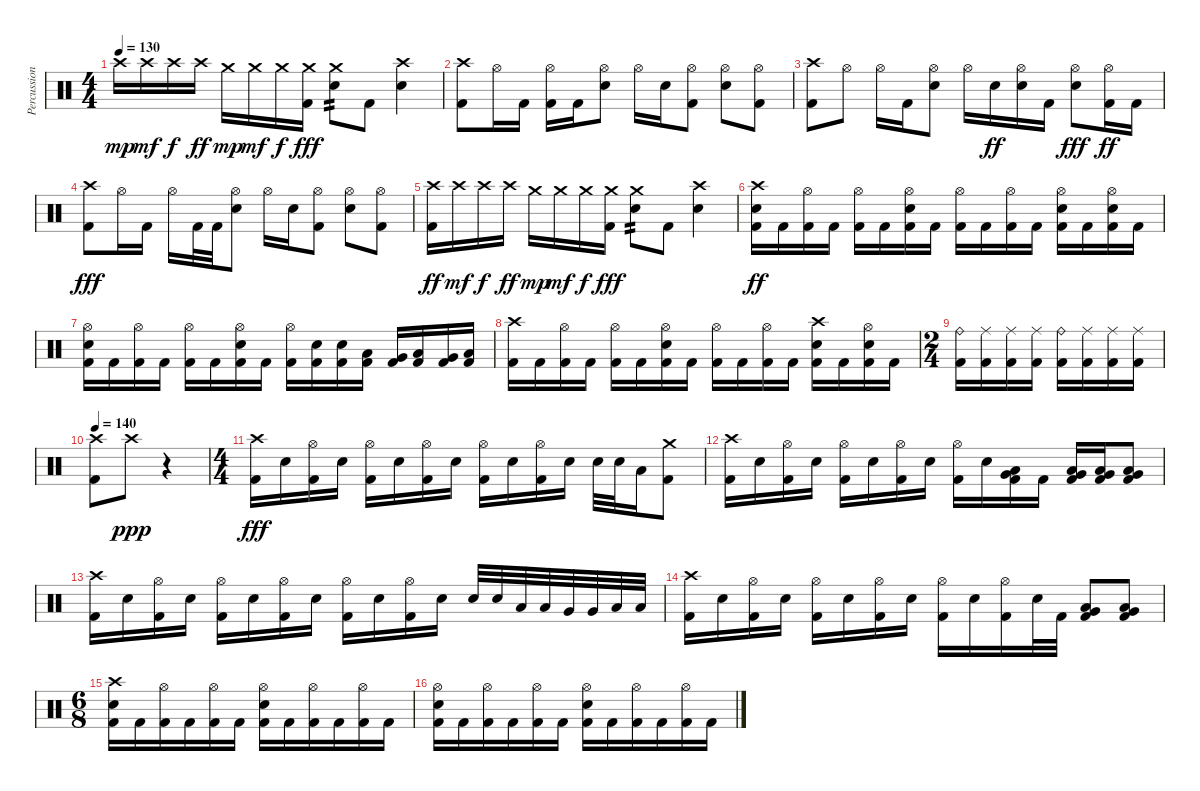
\track ("Percussion" "Percussion") {instrument percussion}
\staff {score}
\articulation defaults
\ts (4 4)
\tempo 130
\clef neutral
\ks c "Crash high (hit)".16{dy mp} "Crash high (hit)".16{dy mf} "Crash high (hit)".16{dy f} "Crash high (hit)".16{dy ff} "Crash medium (hit)".16{dy mp} "Crash medium (hit)".16{dy mf} "Crash medium (hit)".16{dy f}
("Crash medium (hit)" "Kick (hit) 2").16{dy fff} ("Crash medium (hit)" "Electric Snare (hit)").8{tp 2} "Kick (hit) 2".8 ("Crash high (hit)" "Electric Snare (hit)").4 |
("Crash high (hit)" "Kick (hit) 2").8 "Hi-Hat (open)".16 "Kick (hit) 2".16 ("Hi-Hat (open)" "Kick (hit) 2").16 "Kick (hit) 2".16 ("Hi-Hat (open)" "Electric Snare (hit)").8 "Hi-Hat (open)".16 "Electric Snare (hit)".16 ("Hi-Hat (open)" "Kick (hit) 2").8 ("Hi-Hat (open)" "Electric Snare (hit)").8 ("Hi-Hat (open)" "Kick (hit) 2").8 |
("Crash high (hit)" "Kick (hit) 2").8 "Hi-Hat (open)".8 "Hi-Hat (open)".16 "Kick (hit) 2".16 ("Hi-Hat (open)" "Electric Snare (hit)").8 "Hi-Hat (open)".16 "Electric Snare (hit)".16{dy ff} ("Hi-Hat (open)" "Electric Snare (hit)").16 "Kick (hit) 2".16 ("Hi-Hat (open)" "Electric Snare (hit)").8{dy fff} ("Hi-Hat (open)" "Kick (hit) 2").16{dy ff} "Kick (hit) 2".16 |
("Crash high (hit)" "Kick (hit) 2").8{dy fff} "Hi-Hat (open)".16 "Kick (hit) 2".16 "Hi-Hat (open)".16 "Kick (hit) 2".32 "Kick (hit) 2".32 ("Hi-Hat (open)" "Electric Snare (hit)").8 "Hi-Hat (open)".16 "Electric Snare (hit)".16 ("Hi-Hat (open)" "Kick (hit) 2").8 ("Hi-Hat (open)" "Electric Snare (hit)").8 ("Hi-Hat (open)" "Kick (hit) 2").8 |
("Crash high (hit)" "Kick (hit) 2").16{dy ff} "Crash high (hit)".16{dy mf} "Crash high (hit)".16{dy f} "Crash high (hit)".16{dy ff} "Crash medium (hit)".16{dy mp} "Crash medium (hit)".16{dy mf} "Crash medium (hit)".16{dy f} ("Crash medium (hit)" "Kick (hit) 2").16{dy fff} ("Crash medium (hit)" "Electric Snare (hit)").8{tp 2} "Kick (hit) 2".8 ("Crash high (hit)" "Electric Snare (hit)").4 |
("Crash high (hit)" "Electric Snare (hit)" "Kick (hit) 2").16{dy ff} "Kick (hit) 2".16 ("Hi-Hat (open)" "Kick (hit) 2").16 "Kick (hit) 2".16 ("Hi-Hat (open)" "Kick (hit) 2").16 "Kick (hit) 2".16 ("Hi-Hat (open)" "Electric Snare (hit)" "Kick (hit) 2").16 "Kick (hit) 2".16 ("Hi-Hat (open)" "Kick (hit) 2").16 "Kick (hit) 2".16 ("Hi-Hat (open)" "Kick (hit) 2").16 "Kick (hit) 2".16 ("Hi-Hat (open)" "Electric Snare (hit)" "Kick (hit) 2").16 "Kick (hit) 2".16 ("Hi-Hat (open)" "Electric Snare (hit)" "Kick (hit) 2").16 "Kick (hit) 2".16 |
("Hi-Hat (open)" "Electric Snare (hit)" "Kick (hit) 2").16 "Kick (hit) 2".16 ("Hi-Hat (open)" "Kick (hit) 2").16 "Kick (hit) 2".16 ("Hi-Hat (open)" "Kick (hit) 2").16 "Kick (hit) 2".16 ("Hi-Hat (open)" "Electric Snare (hit)" "Kick (hit) 2").16 "Kick (hit) 2".16 ("Hi-Hat (open)" "Kick (hit) 2").16 ("Electric Snare (hit)" "Kick (hit) 2").16 ("Electric Snare (hit)" "Kick (hit) 2").16 ("Low Tom (hit)" "Kick (hit) 2").16 ("Very Low Tom (hit)" "Kick (hit) 2").16 ("Low Floor Tom (hit)" "Kick (hit) 2").16 ("Very Low Tom (hit)" "Kick (hit) 2").16 ("Low Floor Tom (hit)" "Kick (hit) 2").16 |
("Crash high (hit)" "Kick (hit) 2").16 "Kick (hit) 2".16 ("Hi-Hat (open)" "Kick (hit) 2").16 "Kick (hit) 2".16 ("Hi-Hat (open)" "Kick (hit) 2").16 "Kick (hit) 2".16 ("Hi-Hat (open)" "Electric Snare (hit)" "Kick (hit) 2").16 "Kick (hit) 2".16 ("Hi-Hat (open)" "Kick (hit) 2").16 "Kick (hit) 2".16 ("Hi-Hat (open)" "Kick (hit) 2").16 "Kick (hit) 2".16 ("Crash high (hit)" "Electric Snare (hit)" "Kick (hit) 2").16 "Kick (hit) 2".16 ("Hi-Hat (open)" "Electric Snare (hit)" "Kick (hit) 2").16 "Kick (hit) 2".16 |
\ts (2 4)
("Ride (bell)" "Kick (hit) 2").16 ("Ride (middle)" "Kick (hit) 2").16 ("Ride (middle)" "Kick (hit) 2").16 ("Ride (middle)" "Kick (hit) 2").16 ("Ride (bell)" "Kick (hit) 2").16 ("Ride (middle)" "Kick (hit) 2").16 ("Ride (middle)" "Kick (hit) 2").16 ("Ride (middle)" "Kick (hit) 2").16 |
\tempo 140
("Crash high (hit)" "Kick (hit) 2").8 "Crash high (hit)".8{dy ppp} r.4 |
\ts (4 4)
("Crash high (hit)" "Kick (hit) 2").16{dy fff} "Electric Snare (hit)".16 ("Hi-Hat (open)" "Kick (hit) 2").16 "Electric Snare (hit)".16 ("Hi-Hat (open)" "Kick (hit) 2").16 "Electric Snare (hit)".16 ("Hi-Hat (open)" "Kick (hit) 2").16 "Electric Snare (hit)".16 ("Hi-Hat (open)" "Kick (hit) 2").16 "Electric Snare (hit)".16 ("Hi-Hat (open)" "Kick (hit) 2").16 "Electric Snare (hit)".16 "Electric Snare (hit)".32 "Electric Snare (hit)".32 "Low Tom (hit)".16 ("Crash medium (hit)" "Kick (hit) 2").8 |
("Crash high (hit)" "Kick (hit) 2").16 "Electric Snare (hit)".16 ("Hi-Hat (open)" "Kick (hit) 2").16 "Electric Snare (hit)".16 ("Hi-Hat (open)" "Kick (hit) 2").16 "Electric Snare (hit)".16 ("Hi-Hat (open)" "Kick (hit) 2").16 "Electric Snare (hit)".16 ("Hi-Hat (open)" "Kick (hit) 2").16 "Electric Snare (hit)".16 ("Very Low Tom (hit)" "Low Floor Tom (hit)" "Kick (hit) 2").16 "Kick (hit) 2".16 ("Very Low Tom (hit)" "Low Floor Tom (hit)" "Kick (hit) 2").16 ("Very Low Tom (hit)" "Low Floor Tom (hit)" "Kick (hit) 2").16 ("Very Low Tom (hit)" "Low Floor Tom (hit)" "Kick (hit) 2").8 |
("Crash high (hit)" "Kick (hit) 2").16 "Electric Snare (hit)".16 ("Hi-Hat (open)" "Kick (hit) 2").16 "Electric Snare (hit)".16 ("Hi-Hat (open)" "Kick (hit) 2").16 "Electric Snare (hit)".16 ("Hi-Hat (open)" "Kick (hit) 2").16 "Electric Snare (hit)".16 ("Hi-Hat (open)" "Kick (hit) 2").16 "Electric Snare (hit)".16 ("Hi-Hat (open)" "Kick (hit) 2").16 "Electric Snare (hit)".16 "Electric Snare (hit)".32 "Electric Snare (hit)".32 "Low Tom (hit)".32 "Low Tom (hit)".32 "Very Low Tom (hit)".32 "Very Low Tom (hit)".32 "Low Floor Tom (hit)".32 "Low Floor Tom (hit)".32 |
("Crash high (hit)" "Kick (hit) 2").16 "Electric Snare (hit)".16 ("Hi-Hat (open)" "Kick (hit) 2").16 "Electric Snare (hit)".16 ("Hi-Hat (open)" "Kick (hit) 2").16 "Electric Snare (hit)".16 ("Hi-Hat (open)" "Kick (hit) 2").16 "Electric Snare (hit)".16 ("Hi-Hat (open)" "Kick (hit) 2").16 "Electric Snare (hit)".16 ("Hi-Hat (open)" "Kick (hit) 2").16 "Electric Snare (hit)".32 "Kick (hit) 2".32 ("Very Low Tom (hit)" "Low Floor Tom (hit)" "Kick (hit) 2").8 ("Very Low Tom (hit)" "Low Floor Tom (hit)" "Kick (hit) 2").8 |
\ts (6 8)
("Crash high (hit)" "Electric Snare (hit)" "Kick (hit) 2").16 "Kick (hit) 2".16 ("Hi-Hat (open)" "Kick (hit) 2").16 "Kick (hit) 2".16 ("Hi-Hat (open)" "Kick (hit) 2").16 "Kick (hit) 2".16 ("Hi-Hat (open)" "Electric Snare (hit)" "Kick (hit) 2").16 "Kick (hit) 2".16 ("Hi-Hat (open)" "Kick (hit) 2").16 "Kick (hit) 2".16 ("Hi-Hat (open)" "Kick (hit) 2").16 "Kick (hit) 2".16 |
("Hi-Hat (open)" "Electric Snare (hit)" "Kick (hit) 2").16 "Kick (hit) 2".16 ("Hi-Hat (open)" "Kick (hit) 2").16 "Kick (hit) 2".16 ("Hi-Hat (open)" "Kick (hit) 2").16 "Kick (hit) 2".16 ("Hi-Hat (open)" "Electric Snare (hit)" "Kick (hit) 2").16 "Kick (hit) 2".16 ("Hi-Hat (open)" "Kick (hit) 2").16 "Kick (hit) 2".16 ("Hi-Hat (open)" "Kick (hit) 2").16 "Kick (hit) 2".16
